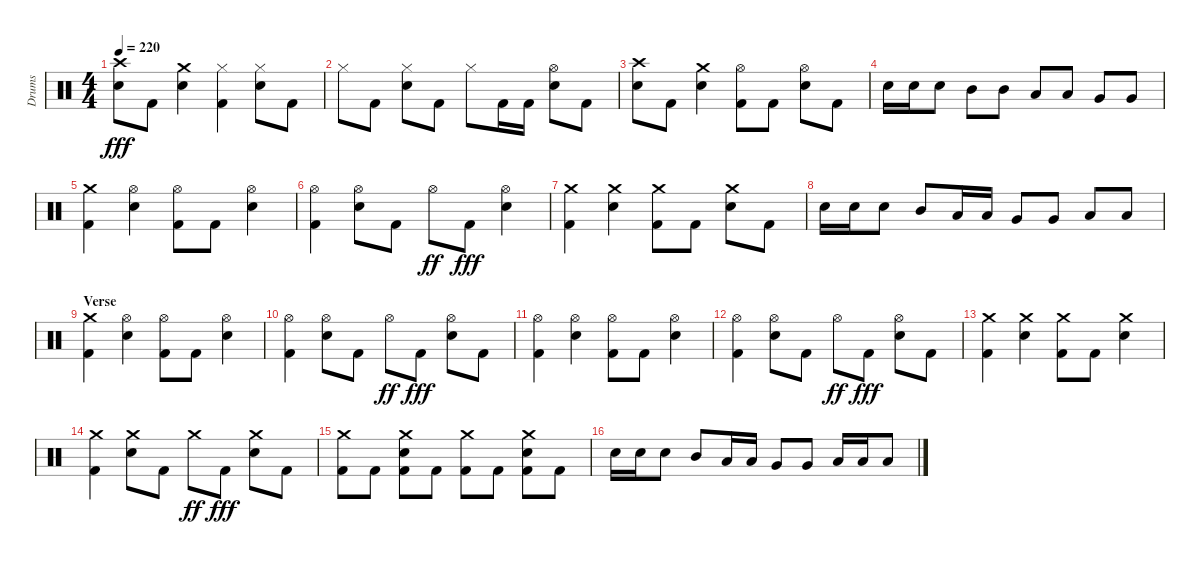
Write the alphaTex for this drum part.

\track ("Drums" "Drums") {instrument percussion}
\staff {score}
\articulation defaults
\ts (4 4)
\tempo 220
\clef neutral
\ks aminor
("Snare (hit) 2" "Crash high (hit)").8{dy fff} "Kick (hit) 2".8 ("Snare (hit) 2" "Crash medium (hit)").4 ("Kick (hit) 2" "Hi-Hat (closed)").4 ("Snare (hit) 2" "Hi-Hat (closed)").8 "Kick (hit) 2".8 |
"Hi-Hat (closed)".8 "Kick (hit) 2".8 ("Snare (hit) 2" "Hi-Hat (closed)").8 "Kick (hit) 2".8 "Hi-Hat (closed)".8 "Kick (hit) 2".16 "Kick (hit) 2".16 ("Snare (hit) 2" "Hi-Hat (open)").8 "Kick (hit) 2".8 |
("Snare (hit) 2" "Crash high (hit)").8 "Kick (hit) 2".8 ("Snare (hit) 2" "Crash medium (hit)").4 ("Kick (hit) 2" "Hi-Hat (open)").8 "Kick (hit) 2".8 ("Snare (hit) 2" "Hi-Hat (open)").8 "Kick (hit) 2".8 |
"Snare (hit) 2".16 "Snare (hit) 2".16 "Snare (hit) 2".8 "Mid Tom (hit)".8 "Mid Tom (hit)".8 "Low Tom (hit)".8 "Low Tom (hit)".8 "Very Low Tom (hit)".8 "Very Low Tom (hit)".8 |
("Kick (hit) 2" "Crash medium (hit)").4 ("Snare (hit) 2" "Hi-Hat (open)").4 ("Kick (hit) 2" "Hi-Hat (open)").8 "Kick (hit) 2".8 ("Snare (hit) 2" "Hi-Hat (open)").4 |
("Kick (hit) 2" "Hi-Hat (open)").4 ("Snare (hit) 2" "Hi-Hat (open)").8 "Kick (hit) 2".8 "Hi-Hat (open)".8{dy ff} "Kick (hit) 2".8{dy fff} ("Snare (hit) 2" "Hi-Hat (open)").4 |
("Kick (hit) 2" "Crash medium (hit)").4 ("Snare (hit) 2" "Crash medium (hit)").4 ("Kick (hit) 2" "Crash medium (hit)").8 "Kick (hit) 2".8 ("Snare (hit) 2" "Crash medium (hit)").8 "Kick (hit) 2".8 |
"Snare (hit) 2".16 "Snare (hit) 2".16 "Snare (hit) 2".8 "Mid Tom (hit)".8 "Low Tom (hit)".16 "Low Tom (hit)".16 "Very Low Tom (hit)".8 "Very Low Tom (hit)".8 "Low Floor Tom (hit)".8 "Low Floor Tom (hit)".8 |
\section ("" "Verse")
("Kick (hit) 2" "Crash medium (hit)").4 ("Snare (hit) 2" "Hi-Hat (open)").4 ("Kick (hit) 2" "Hi-Hat (open)").8 "Kick (hit) 2".8 ("Snare (hit) 2" "Hi-Hat (open)").4 |
("Kick (hit) 2" "Hi-Hat (open)").4 ("Snare (hit) 2" "Hi-Hat (open)").8 "Kick (hit) 2".8 "Hi-Hat (open)".8{dy ff} "Kick (hit) 2".8{dy fff} ("Snare (hit) 2" "Hi-Hat (open)").8 "Kick (hit) 2".8 |
("Kick (hit) 2" "Hi-Hat (open)").4 ("Snare (hit) 2" "Hi-Hat (open)").4 ("Kick (hit) 2" "Hi-Hat (open)").8 "Kick (hit) 2".8 ("Snare (hit) 2" "Hi-Hat (open)").4 |
("Kick (hit) 2" "Hi-Hat (open)").4 ("Snare (hit) 2" "Hi-Hat (open)").8 "Kick (hit) 2".8 "Hi-Hat (open)".8{dy ff} "Kick (hit) 2".8{dy fff} ("Snare (hit) 2" "Hi-Hat (open)").8 "Kick (hit) 2".8 |
("Kick (hit) 2" "Crash medium (hit)").4 ("Snare (hit) 2" "Crash medium (hit)").4 ("Kick (hit) 2" "Crash medium (hit)").8 "Kick (hit) 2".8 ("Snare (hit) 2" "Crash medium (hit)").4 |
("Kick (hit) 2" "Crash medium (hit)").4 ("Snare (hit) 2" "Crash medium (hit)").8 "Kick (hit) 2".8 "Crash medium (hit)".8{dy ff} "Kick (hit) 2".8{dy fff} ("Snare (hit) 2" "Crash medium (hit)").8 "Kick (hit) 2".8 |
("Kick (hit) 2" "Crash medium (hit)").8 "Kick (hit) 2".8 ("Kick (hit) 2" "Snare (hit) 2" "Crash medium (hit)").8 "Kick (hit) 2".8 ("Kick (hit) 2" "Crash medium (hit)").8 "Kick (hit) 2".8 ("Kick (hit) 2" "Snare (hit) 2" "Crash medium (hit)").8 "Kick (hit) 2".8 |
"Snare (hit) 2".16 "Snare (hit) 2".16 "Snare (hit) 2".8 "Mid Tom (hit)".8 "Low Tom (hit)".16 "Low Tom (hit)".16 "Very Low Tom (hit)".8 "Very Low Tom (hit)".8 "Low Floor Tom (hit)".16 "Low Floor Tom (hit)".16 "Low Floor Tom (hit)".8
